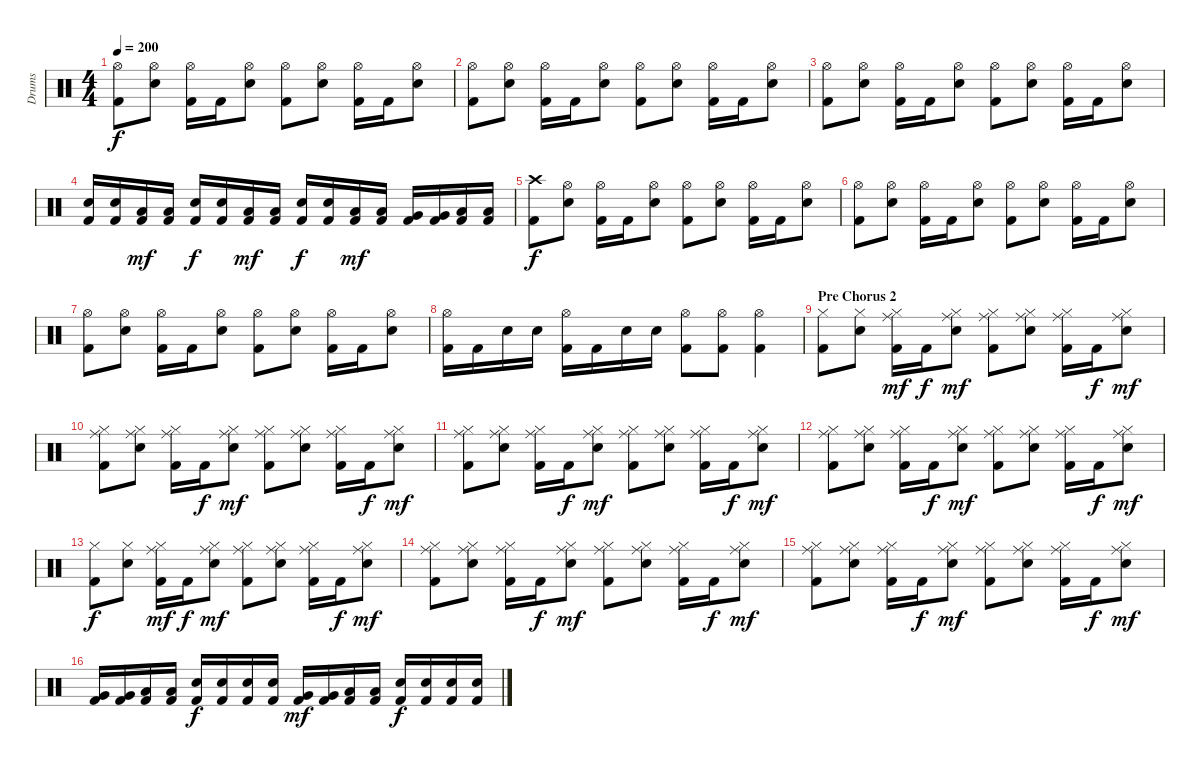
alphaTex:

\track ("Drums" "Drums") {instrument percussion}
\staff {score}
\articulation defaults
\ts (4 4)
\tempo 200
\clef neutral
\ks c
("Hi-Hat (open)" "Kick (hit) 2").8{dy f} ("Hi-Hat (open)" "Snare (hit) 2").8 ("Hi-Hat (open)" "Kick (hit) 2").16 "Kick (hit) 2".16 ("Hi-Hat (open)" "Snare (hit) 2").8 ("Hi-Hat (open)" "Kick (hit) 2").8 ("Hi-Hat (open)" "Snare (hit) 2").8 ("Hi-Hat (open)" "Kick (hit) 2").16 "Kick (hit) 2".16 ("Hi-Hat (open)" "Snare (hit) 2").8 |
("Hi-Hat (open)" "Kick (hit) 2").8 ("Hi-Hat (open)" "Snare (hit) 2").8 ("Hi-Hat (open)" "Kick (hit) 2").16 "Kick (hit) 2".16 ("Hi-Hat (open)" "Snare (hit) 2").8 ("Hi-Hat (open)" "Kick (hit) 2").8 ("Hi-Hat (open)" "Snare (hit) 2").8 ("Hi-Hat (open)" "Kick (hit) 2").16 "Kick (hit) 2".16 ("Hi-Hat (open)" "Snare (hit) 2").8 |
("Hi-Hat (open)" "Kick (hit) 2").8 ("Hi-Hat (open)" "Snare (hit) 2").8 ("Hi-Hat (open)" "Kick (hit) 2").16 "Kick (hit) 2".16 ("Hi-Hat (open)" "Snare (hit) 2").8 ("Hi-Hat (open)" "Kick (hit) 2").8 ("Hi-Hat (open)" "Snare (hit) 2").8 ("Hi-Hat (open)" "Kick (hit) 2").16 "Kick (hit) 2".16 ("Hi-Hat (open)" "Snare (hit) 2").8 |
("Snare (hit) 2" "Kick (hit) 2").16 ("Snare (hit) 2" "Kick (hit) 2").16 ("Low Floor Tom (hit)" "Kick (hit) 2").16{dy mf} ("Low Floor Tom (hit)" "Kick (hit) 2").16 ("Snare (hit) 2" "Kick (hit) 2").16{dy f} ("Snare (hit) 2" "Kick (hit) 2").16 ("Low Floor Tom (hit)" "Kick (hit) 2").16{dy mf} ("Low Floor Tom (hit)" "Kick (hit) 2").16 ("Snare (hit) 2" "Kick (hit) 2").16{dy f} ("Snare (hit) 2" "Kick (hit) 2").16 ("Low Tom (hit)" "Kick (hit) 2").16{dy mf} ("Low Tom (hit)" "Kick (hit) 2").16 ("Very Low Tom (hit)" "Kick (hit) 2").16 ("Very Low Tom (hit)" "Kick (hit) 2").16 ("Low Floor Tom (hit)" "Kick (hit) 2").16 ("Low Floor Tom (hit)" "Kick (hit) 2").16 |
("Crash high (hit)" "Kick (hit) 2").8{dy f} ("Hi-Hat (open)" "Snare (hit) 2").8 ("Hi-Hat (open)" "Kick (hit) 2").16 "Kick (hit) 2".16 ("Hi-Hat (open)" "Snare (hit) 2").8 ("Hi-Hat (open)" "Kick (hit) 2").8 ("Hi-Hat (open)" "Snare (hit) 2").8 ("Hi-Hat (open)" "Kick (hit) 2").16 "Kick (hit) 2".16 ("Hi-Hat (open)" "Snare (hit) 2").8 |
("Hi-Hat (open)" "Kick (hit) 2").8 ("Hi-Hat (open)" "Snare (hit) 2").8 ("Hi-Hat (open)" "Kick (hit) 2").16 "Kick (hit) 2".16 ("Hi-Hat (open)" "Snare (hit) 2").8 ("Hi-Hat (open)" "Kick (hit) 2").8 ("Hi-Hat (open)" "Snare (hit) 2").8 ("Hi-Hat (open)" "Kick (hit) 2").16 "Kick (hit) 2".16 ("Hi-Hat (open)" "Snare (hit) 2").8 |
("Hi-Hat (open)" "Kick (hit) 2").8 ("Hi-Hat (open)" "Snare (hit) 2").8 ("Hi-Hat (open)" "Kick (hit) 2").16 "Kick (hit) 2".16 ("Hi-Hat (open)" "Snare (hit) 2").8 ("Hi-Hat (open)" "Kick (hit) 2").8 ("Hi-Hat (open)" "Snare (hit) 2").8 ("Hi-Hat (open)" "Kick (hit) 2").16 "Kick (hit) 2".16 ("Hi-Hat (open)" "Snare (hit) 2").8 |
("Hi-Hat (open)" "Kick (hit) 2").16 "Kick (hit) 2".16 "Snare (hit) 2".16 "Snare (hit) 2".16 ("Hi-Hat (open)" "Kick (hit) 2").16 "Kick (hit) 2".16 "Snare (hit) 2".16 "Snare (hit) 2".16 ("Hi-Hat (open)" "Kick (hit) 2").8 ("Hi-Hat (open)" "Kick (hit) 2").8 ("Hi-Hat (open)" "Kick (hit) 2").4 |
\section ("" "Pre Chorus 2")
("Hi-Hat (closed)" "Kick (hit) 2").8 ("Hi-Hat (closed)" "Snare (hit) 2").8 ("Hi-Hat (closed)" "Ride (middle)" "Kick (hit) 2").16{dy mf} "Kick (hit) 2".16{dy f} ("Hi-Hat (closed)" "Ride (middle)" "Snare (hit) 2").8{dy mf} ("Hi-Hat (closed)" "Ride (middle)" "Kick (hit) 2").8 ("Hi-Hat (closed)" "Ride (middle)" "Snare (hit) 2").8 ("Hi-Hat (closed)" "Ride (middle)" "Kick (hit) 2").16 "Kick (hit) 2".16{dy f} ("Hi-Hat (closed)" "Ride (middle)" "Snare (hit) 2").8{dy mf} |
("Hi-Hat (closed)" "Ride (middle)" "Kick (hit) 2").8 ("Hi-Hat (closed)" "Ride (middle)" "Snare (hit) 2").8 ("Hi-Hat (closed)" "Ride (middle)" "Kick (hit) 2").16 "Kick (hit) 2".16{dy f} ("Hi-Hat (closed)" "Ride (middle)" "Snare (hit) 2").8{dy mf} ("Hi-Hat (closed)" "Ride (middle)" "Kick (hit) 2").8 ("Hi-Hat (closed)" "Ride (middle)" "Snare (hit) 2").8 ("Hi-Hat (closed)" "Ride (middle)" "Kick (hit) 2").16 "Kick (hit) 2".16{dy f} ("Hi-Hat (closed)" "Ride (middle)" "Snare (hit) 2").8{dy mf} |
("Hi-Hat (closed)" "Ride (middle)" "Kick (hit) 2").8 ("Hi-Hat (closed)" "Ride (middle)" "Snare (hit) 2").8 ("Hi-Hat (closed)" "Ride (middle)" "Kick (hit) 2").16 "Kick (hit) 2".16{dy f} ("Hi-Hat (closed)" "Ride (middle)" "Snare (hit) 2").8{dy mf} ("Hi-Hat (closed)" "Ride (middle)" "Kick (hit) 2").8 ("Hi-Hat (closed)" "Ride (middle)" "Snare (hit) 2").8 ("Hi-Hat (closed)" "Ride (middle)" "Kick (hit) 2").16 "Kick (hit) 2".16{dy f} ("Hi-Hat (closed)" "Ride (middle)" "Snare (hit) 2").8{dy mf} |
("Hi-Hat (closed)" "Ride (middle)" "Kick (hit) 2").8 ("Hi-Hat (closed)" "Ride (middle)" "Snare (hit) 2").8 ("Hi-Hat (closed)" "Ride (middle)" "Kick (hit) 2").16 "Kick (hit) 2".16{dy f} ("Hi-Hat (closed)" "Ride (middle)" "Snare (hit) 2").8{dy mf} ("Hi-Hat (closed)" "Ride (middle)" "Kick (hit) 2").8 ("Hi-Hat (closed)" "Ride (middle)" "Snare (hit) 2").8 ("Hi-Hat (closed)" "Ride (middle)" "Kick (hit) 2").16 "Kick (hit) 2".16{dy f} ("Hi-Hat (closed)" "Ride (middle)" "Snare (hit) 2").8{dy mf} |
("Hi-Hat (closed)" "Kick (hit) 2").8{dy f} ("Hi-Hat (closed)" "Snare (hit) 2").8 ("Hi-Hat (closed)" "Ride (middle)" "Kick (hit) 2").16{dy mf} "Kick (hit) 2".16{dy f} ("Hi-Hat (closed)" "Ride (middle)" "Snare (hit) 2").8{dy mf} ("Hi-Hat (closed)" "Ride (middle)" "Kick (hit) 2").8 ("Hi-Hat (closed)" "Ride (middle)" "Snare (hit) 2").8 ("Hi-Hat (closed)" "Ride (middle)" "Kick (hit) 2").16 "Kick (hit) 2".16{dy f} ("Hi-Hat (closed)" "Ride (middle)" "Snare (hit) 2").8{dy mf} |
("Hi-Hat (closed)" "Ride (middle)" "Kick (hit) 2").8 ("Hi-Hat (closed)" "Ride (middle)" "Snare (hit) 2").8 ("Hi-Hat (closed)" "Ride (middle)" "Kick (hit) 2").16 "Kick (hit) 2".16{dy f} ("Hi-Hat (closed)" "Ride (middle)" "Snare (hit) 2").8{dy mf} ("Hi-Hat (closed)" "Ride (middle)" "Kick (hit) 2").8 ("Hi-Hat (closed)" "Ride (middle)" "Snare (hit) 2").8 ("Hi-Hat (closed)" "Ride (middle)" "Kick (hit) 2").16 "Kick (hit) 2".16{dy f} ("Hi-Hat (closed)" "Ride (middle)" "Snare (hit) 2").8{dy mf} |
("Hi-Hat (closed)" "Ride (middle)" "Kick (hit) 2").8 ("Hi-Hat (closed)" "Ride (middle)" "Snare (hit) 2").8 ("Hi-Hat (closed)" "Ride (middle)" "Kick (hit) 2").16 "Kick (hit) 2".16{dy f} ("Hi-Hat (closed)" "Ride (middle)" "Snare (hit) 2").8{dy mf} ("Hi-Hat (closed)" "Ride (middle)" "Kick (hit) 2").8 ("Hi-Hat (closed)" "Ride (middle)" "Snare (hit) 2").8 ("Hi-Hat (closed)" "Ride (middle)" "Kick (hit) 2").16 "Kick (hit) 2".16{dy f} ("Hi-Hat (closed)" "Ride (middle)" "Snare (hit) 2").8{dy mf} |
("Very Low Tom (hit)" "Kick (hit) 2").16 ("Very Low Tom (hit)" "Kick (hit) 2").16 ("Low Floor Tom (hit)" "Kick (hit) 2").16 ("Low Floor Tom (hit)" "Kick (hit) 2").16 ("Snare (hit) 2" "Kick (hit) 2").16{dy f} ("Snare (hit) 2" "Kick (hit) 2").16 ("Snare (hit) 2" "Kick (hit) 2").16 ("Snare (hit) 2" "Kick (hit) 2").16 ("Very Low Tom (hit)" "Kick (hit) 2").16{dy mf} ("Very Low Tom (hit)" "Kick (hit) 2").16 ("Low Floor Tom (hit)" "Kick (hit) 2").16 ("Low Floor Tom (hit)" "Kick (hit) 2").16 ("Snare (hit) 2" "Kick (hit) 2").16{dy f} ("Snare (hit) 2" "Kick (hit) 2").16 ("Snare (hit) 2" "Kick (hit) 2").16 ("Snare (hit) 2" "Kick (hit) 2").16
